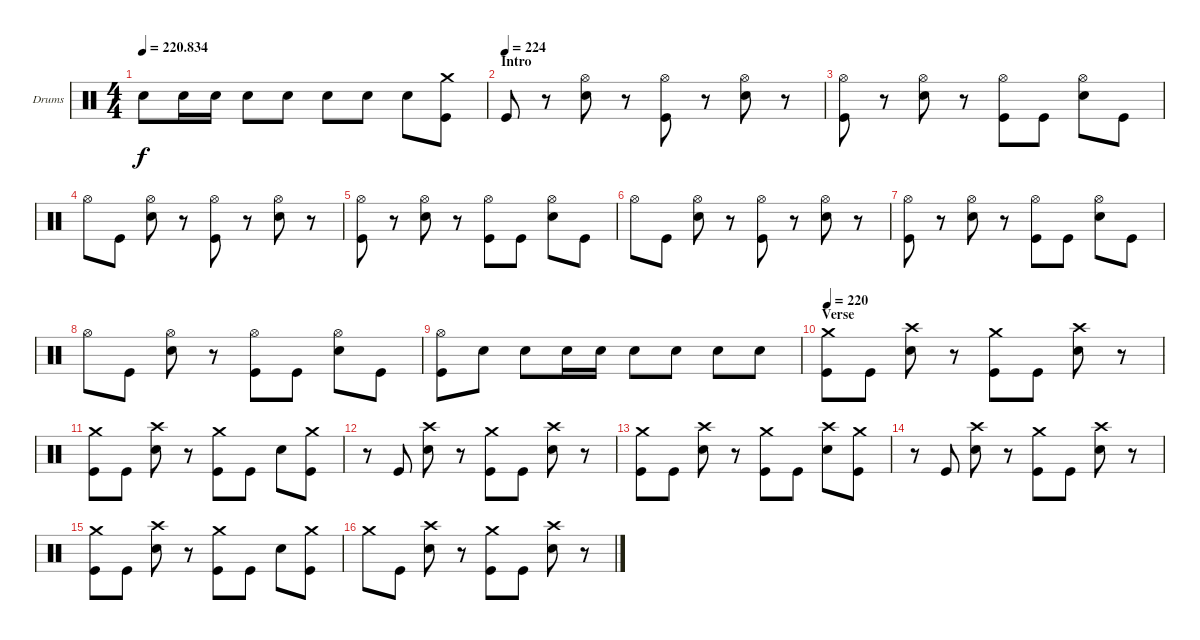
\bracketExtendMode groupsimilarinstruments
\firstSystemTrackNameOrientation horizontal
\otherSystemsTrackNameOrientation horizontal
\track ("Drumkit" "Drums") {instrument percussion}
\staff {score}
\articulation defaults
\ts (4 4)
\tempo
220.834
\accidentals auto
\clef neutral
\ottava regular
\simile none
\ks c "Snare (hit) 2".8{dy f} "Snare (hit) 2".16 "Snare (hit) 2".16 "Snare (hit) 2".8 "Snare (hit) 2".8 "Snare (hit) 2".8 "Snare (hit) 2".8 "Snare (hit) 2".8
("Crash medium (hit)" "Kick (hit)").8 |
\section ("" "Intro")
\tempo (224)
"Kick (hit)".8 r.8 ("Hi-Hat (open)" "Snare (hit) 2").8 r.8 ("Hi-Hat (open)" "Kick (hit)").8 r.8 ("Hi-Hat (open)" "Snare (hit) 2").8 r.8 |
("Hi-Hat (open)" "Kick (hit)").8 r.8 ("Hi-Hat (open)" "Snare (hit) 2").8 r.8 ("Hi-Hat (open)" "Kick (hit)").8 "Kick (hit)".8 ("Hi-Hat (open)" "Snare (hit) 2").8 "Kick (hit)".8 |
"Hi-Hat (open)".8 "Kick (hit)".8 ("Hi-Hat (open)" "Snare (hit) 2").8 r.8 ("Hi-Hat (open)" "Kick (hit)").8 r.8 ("Hi-Hat (open)" "Snare (hit) 2").8 r.8 |
("Hi-Hat (open)" "Kick (hit)").8 r.8 ("Hi-Hat (open)" "Snare (hit) 2").8 r.8 ("Hi-Hat (open)" "Kick (hit)").8 "Kick (hit)".8 ("Hi-Hat (open)" "Snare (hit) 2").8 "Kick (hit)".8 |
"Hi-Hat (open)".8 "Kick (hit)".8 ("Hi-Hat (open)" "Snare (hit) 2").8 r.8 ("Hi-Hat (open)" "Kick (hit)").8 r.8 ("Hi-Hat (open)" "Snare (hit) 2").8 r.8 |
("Hi-Hat (open)" "Kick (hit)").8 r.8 ("Hi-Hat (open)" "Snare (hit) 2").8 r.8 ("Hi-Hat (open)" "Kick (hit)").8 "Kick (hit)".8 ("Hi-Hat (open)" "Snare (hit) 2").8 "Kick (hit)".8 |
"Hi-Hat (open)".8 "Kick (hit)".8 ("Hi-Hat (open)" "Snare (hit) 2").8 r.8 ("Hi-Hat (open)" "Kick (hit)").8 "Kick (hit)".8 ("Hi-Hat (open)" "Snare (hit) 2").8 "Kick (hit)".8 |
("Hi-Hat (open)" "Kick (hit)").8 "Snare (hit) 2".8 "Snare (hit) 2".8 "Snare (hit) 2".16 "Snare (hit) 2".16 "Snare (hit) 2".8 "Snare (hit) 2".8 "Snare (hit) 2".8 "Snare (hit) 2".8 |
\section ("" "Verse")
\tempo 220
("Crash medium (hit)" "Kick (hit)").8 "Kick (hit)".8 ("Crash high (hit)" "Snare (hit) 2").8 r.8 ("Crash medium (hit)" "Kick (hit)").8 "Kick (hit)".8 ("Crash high (hit)" "Snare (hit) 2").8 r.8 |
("Crash medium (hit)" "Kick (hit)").8 "Kick (hit)".8 ("Crash high (hit)" "Snare (hit) 2").8 r.8 ("Crash medium (hit)" "Kick (hit)").8 "Kick (hit)".8 "Snare (hit) 2".8 ("Kick (hit)" "Crash medium (hit)").8 |
r.8 "Kick (hit)".8 ("Crash high (hit)" "Snare (hit) 2").8 r.8 ("Crash medium (hit)" "Kick (hit)").8 "Kick (hit)".8 ("Crash high (hit)" "Snare (hit) 2").8 r.8 |
("Crash medium (hit)" "Kick (hit)").8 "Kick (hit)".8 ("Crash high (hit)" "Snare (hit) 2").8 r.8 ("Crash medium (hit)" "Kick (hit)").8 "Kick (hit)".8 ("Crash high (hit)" "Snare (hit) 2").8 ("Kick (hit)" "Crash medium (hit)").8 |
r.8 "Kick (hit)".8 ("Crash high (hit)" "Snare (hit) 2").8 r.8 ("Crash medium (hit)" "Kick (hit)").8 "Kick (hit)".8 ("Crash high (hit)" "Snare (hit) 2").8 r.8 |
("Crash medium (hit)" "Kick (hit)").8 "Kick (hit)".8 ("Crash high (hit)" "Snare (hit) 2").8 r.8 ("Crash medium (hit)" "Kick (hit)").8 "Kick (hit)".8 "Snare (hit) 2".8 ("Kick (hit)" "Crash medium (hit)").8 |
"Crash medium (hit)".8 "Kick (hit)".8 ("Crash high (hit)" "Snare (hit) 2").8 r.8 ("Crash medium (hit)" "Kick (hit)").8 "Kick (hit)".8 ("Crash high (hit)" "Snare (hit) 2").8 r.8
